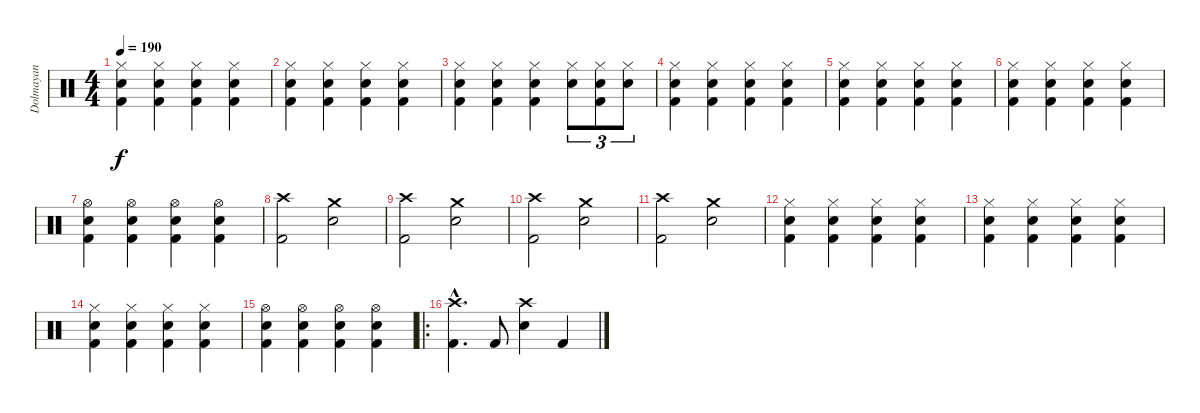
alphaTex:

\track ("Dolmayan" "Dolmayan") {instrument percussion}
\staff {score}
\articulation defaults
\ts (4 4)
\tempo 190
\clef neutral
\ks c
("Hi-Hat (closed)" "Electric Snare (hit)" "Kick (hit) 2").4{dy f} ("Hi-Hat (closed)" "Electric Snare (hit)" "Kick (hit) 2").4 ("Hi-Hat (closed)" "Electric Snare (hit)" "Kick (hit) 2").4 ("Hi-Hat (closed)" "Electric Snare (hit)" "Kick (hit) 2").4 |
("Hi-Hat (closed)" "Electric Snare (hit)" "Kick (hit) 2").4 ("Hi-Hat (closed)" "Electric Snare (hit)" "Kick (hit) 2").4 ("Hi-Hat (closed)" "Electric Snare (hit)" "Kick (hit) 2").4 ("Hi-Hat (closed)" "Electric Snare (hit)" "Kick (hit) 2").4 |
("Hi-Hat (closed)" "Electric Snare (hit)" "Kick (hit) 2").4 ("Hi-Hat (closed)" "Electric Snare (hit)" "Kick (hit) 2").4 ("Hi-Hat (closed)" "Electric Snare (hit)" "Kick (hit) 2").4 ("Hi-Hat (closed)" "Electric Snare (hit)").8{tu (3 2)} ("Hi-Hat (closed)" "Electric Snare (hit)" "Kick (hit) 2").8{tu (3 2)} ("Hi-Hat (closed)" "Electric Snare (hit)").8{tu (3 2)} |
("Hi-Hat (closed)" "Electric Snare (hit)" "Kick (hit) 2").4 ("Hi-Hat (closed)" "Electric Snare (hit)" "Kick (hit) 2").4 ("Hi-Hat (closed)" "Electric Snare (hit)" "Kick (hit) 2").4 ("Hi-Hat (closed)" "Electric Snare (hit)" "Kick (hit) 2").4 |
("Hi-Hat (closed)" "Electric Snare (hit)" "Kick (hit) 2").4 ("Hi-Hat (closed)" "Electric Snare (hit)" "Kick (hit) 2").4 ("Hi-Hat (closed)" "Electric Snare (hit)" "Kick (hit) 2").4 ("Hi-Hat (closed)" "Electric Snare (hit)" "Kick (hit) 2").4 |
("Hi-Hat (closed)" "Electric Snare (hit)" "Kick (hit) 2").4 ("Hi-Hat (closed)" "Electric Snare (hit)" "Kick (hit) 2").4 ("Hi-Hat (closed)" "Electric Snare (hit)" "Kick (hit) 2").4 ("Hi-Hat (closed)" "Electric Snare (hit)" "Kick (hit) 2").4 |
("Hi-Hat (open)" "Electric Snare (hit)" "Kick (hit) 2").4 ("Hi-Hat (open)" "Electric Snare (hit)" "Kick (hit) 2").4 ("Hi-Hat (open)" "Electric Snare (hit)" "Kick (hit) 2").4 ("Hi-Hat (open)" "Electric Snare (hit)" "Kick (hit) 2").4 |
("Crash high (hit)" "Kick (hit) 2").2 ("Crash medium (hit)" "Electric Snare (hit)").2 |
("Crash high (hit)" "Kick (hit) 2").2 ("Crash medium (hit)" "Electric Snare (hit)").2 |
("Crash high (hit)" "Kick (hit) 2").2 ("Crash medium (hit)" "Electric Snare (hit)").2 |
("Crash high (hit)" "Kick (hit) 2").2 ("Crash medium (hit)" "Electric Snare (hit)").2 |
("Hi-Hat (closed)" "Electric Snare (hit)" "Kick (hit) 2").4 ("Hi-Hat (closed)" "Electric Snare (hit)" "Kick (hit) 2").4 ("Hi-Hat (closed)" "Electric Snare (hit)" "Kick (hit) 2").4 ("Hi-Hat (closed)" "Electric Snare (hit)" "Kick (hit) 2").4 |
("Hi-Hat (closed)" "Electric Snare (hit)" "Kick (hit) 2").4 ("Hi-Hat (closed)" "Electric Snare (hit)" "Kick (hit) 2").4 ("Hi-Hat (closed)" "Electric Snare (hit)" "Kick (hit) 2").4 ("Hi-Hat (closed)" "Electric Snare (hit)" "Kick (hit) 2").4 |
("Hi-Hat (closed)" "Electric Snare (hit)" "Kick (hit) 2").4 ("Hi-Hat (closed)" "Electric Snare (hit)" "Kick (hit) 2").4 ("Hi-Hat (closed)" "Electric Snare (hit)" "Kick (hit) 2").4 ("Hi-Hat (closed)" "Electric Snare (hit)" "Kick (hit) 2").4 |
("Hi-Hat (open)" "Electric Snare (hit)" "Kick (hit) 2").4 ("Hi-Hat (open)" "Electric Snare (hit)" "Kick (hit) 2").4 ("Hi-Hat (open)" "Electric Snare (hit)" "Kick (hit) 2").4 ("Hi-Hat (open)" "Electric Snare (hit)" "Kick (hit) 2").4 |
\ro
("Crash high (hit)"{hac} "Kick (hit) 2"{hac}).4{d} "Kick (hit) 2".8 ("Crash high (hit)" "Electric Snare (hit)").4 "Kick (hit) 2".4
